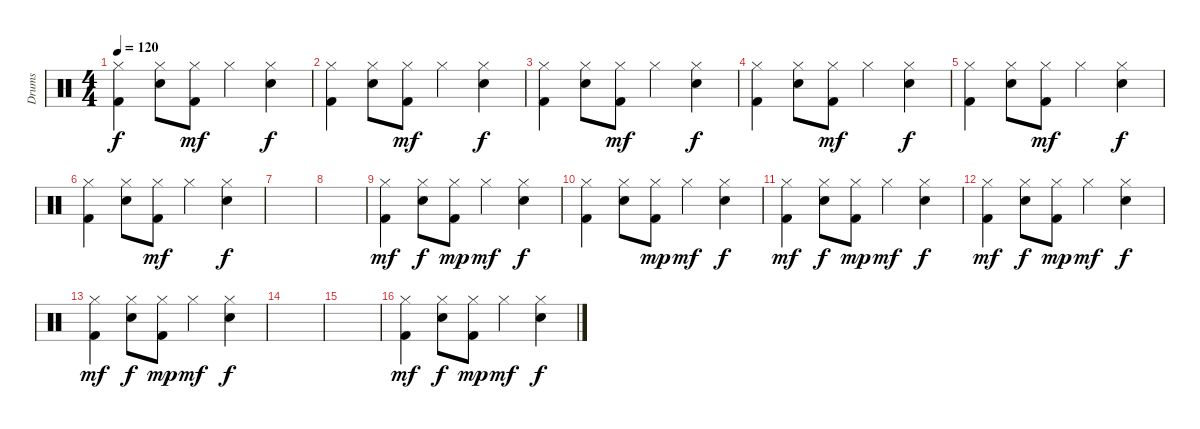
\track ("Drums" "Drums") {instrument percussion}
\staff {score}
\articulation defaults
\ts (4 4)
\tempo 120
\clef neutral
\ks c
("Kick (hit) 2" "Hi-Hat (closed)").4{dy f} ("Snare (hit) 2" "Hi-Hat (closed)").8 ("Kick (hit) 2" "Hi-Hat (closed)").8{dy mf} "Hi-Hat (closed)".4{volume 13} ("Snare (hit) 2" "Hi-Hat (closed)").4{dy f} |
("Kick (hit) 2" "Hi-Hat (closed)").4 ("Snare (hit) 2" "Hi-Hat (closed)").8 ("Kick (hit) 2" "Hi-Hat (closed)").8{dy mf} "Hi-Hat (closed)".4{volume 13} ("Snare (hit) 2" "Hi-Hat (closed)").4{dy f} |
("Kick (hit) 2" "Hi-Hat (closed)").4 ("Snare (hit) 2" "Hi-Hat (closed)").8 ("Kick (hit) 2" "Hi-Hat (closed)").8{dy mf} "Hi-Hat (closed)".4{volume 13} ("Snare (hit) 2" "Hi-Hat (closed)").4{dy f} |
("Kick (hit) 2" "Hi-Hat (closed)").4 ("Snare (hit) 2" "Hi-Hat (closed)").8 ("Kick (hit) 2" "Hi-Hat (closed)").8{dy mf} "Hi-Hat (closed)".4{volume 13} ("Snare (hit) 2" "Hi-Hat (closed)").4{dy f} |
("Kick (hit) 2" "Hi-Hat (closed)").4 ("Snare (hit) 2" "Hi-Hat (closed)").8 ("Kick (hit) 2" "Hi-Hat (closed)").8{dy mf} "Hi-Hat (closed)".4{volume 13} ("Snare (hit) 2" "Hi-Hat (closed)").4{dy f} |
("Kick (hit) 2" "Hi-Hat (closed)").4 ("Snare (hit) 2" "Hi-Hat (closed)").8 ("Kick (hit) 2" "Hi-Hat (closed)").8{dy mf} "Hi-Hat (closed)".4{volume 13} ("Snare (hit) 2" "Hi-Hat (closed)").4{dy f} |
|
|
("Kick (hit) 2" "Hi-Hat (closed)").4{dy mf} ("Snare (hit) 2" "Hi-Hat (closed)").8{dy f} ("Kick (hit) 2" "Hi-Hat (closed)").8{dy mp} "Hi-Hat (closed)".4{dy mf volume 13} ("Snare (hit) 2" "Hi-Hat (closed)").4{dy f} |
("Kick (hit) 2" "Hi-Hat (closed)").4 ("Snare (hit) 2" "Hi-Hat (closed)").8 ("Kick (hit) 2" "Hi-Hat (closed)").8{dy mp} "Hi-Hat (closed)".4{dy mf volume 13} ("Snare (hit) 2" "Hi-Hat (closed)").4{dy f} |
("Kick (hit) 2" "Hi-Hat (closed)").4{dy mf} ("Snare (hit) 2" "Hi-Hat (closed)").8{dy f} ("Kick (hit) 2" "Hi-Hat (closed)").8{dy mp} "Hi-Hat (closed)".4{dy mf volume 13} ("Snare (hit) 2" "Hi-Hat (closed)").4{dy f} |
("Kick (hit) 2" "Hi-Hat (closed)").4{dy mf} ("Snare (hit) 2" "Hi-Hat (closed)").8{dy f} ("Kick (hit) 2" "Hi-Hat (closed)").8{dy mp} "Hi-Hat (closed)".4{dy mf volume 13} ("Snare (hit) 2" "Hi-Hat (closed)").4{dy f} |
("Kick (hit) 2" "Hi-Hat (closed)").4{dy mf} ("Snare (hit) 2" "Hi-Hat (closed)").8{dy f} ("Kick (hit) 2" "Hi-Hat (closed)").8{dy mp} "Hi-Hat (closed)".4{dy mf volume 13} ("Snare (hit) 2" "Hi-Hat (closed)").4{dy f} |
|
|
("Kick (hit) 2" "Hi-Hat (closed)").4{dy mf} ("Snare (hit) 2" "Hi-Hat (closed)").8{dy f} ("Kick (hit) 2" "Hi-Hat (closed)").8{dy mp} "Hi-Hat (closed)".4{dy mf volume 13} ("Snare (hit) 2" "Hi-Hat (closed)").4{dy f}
